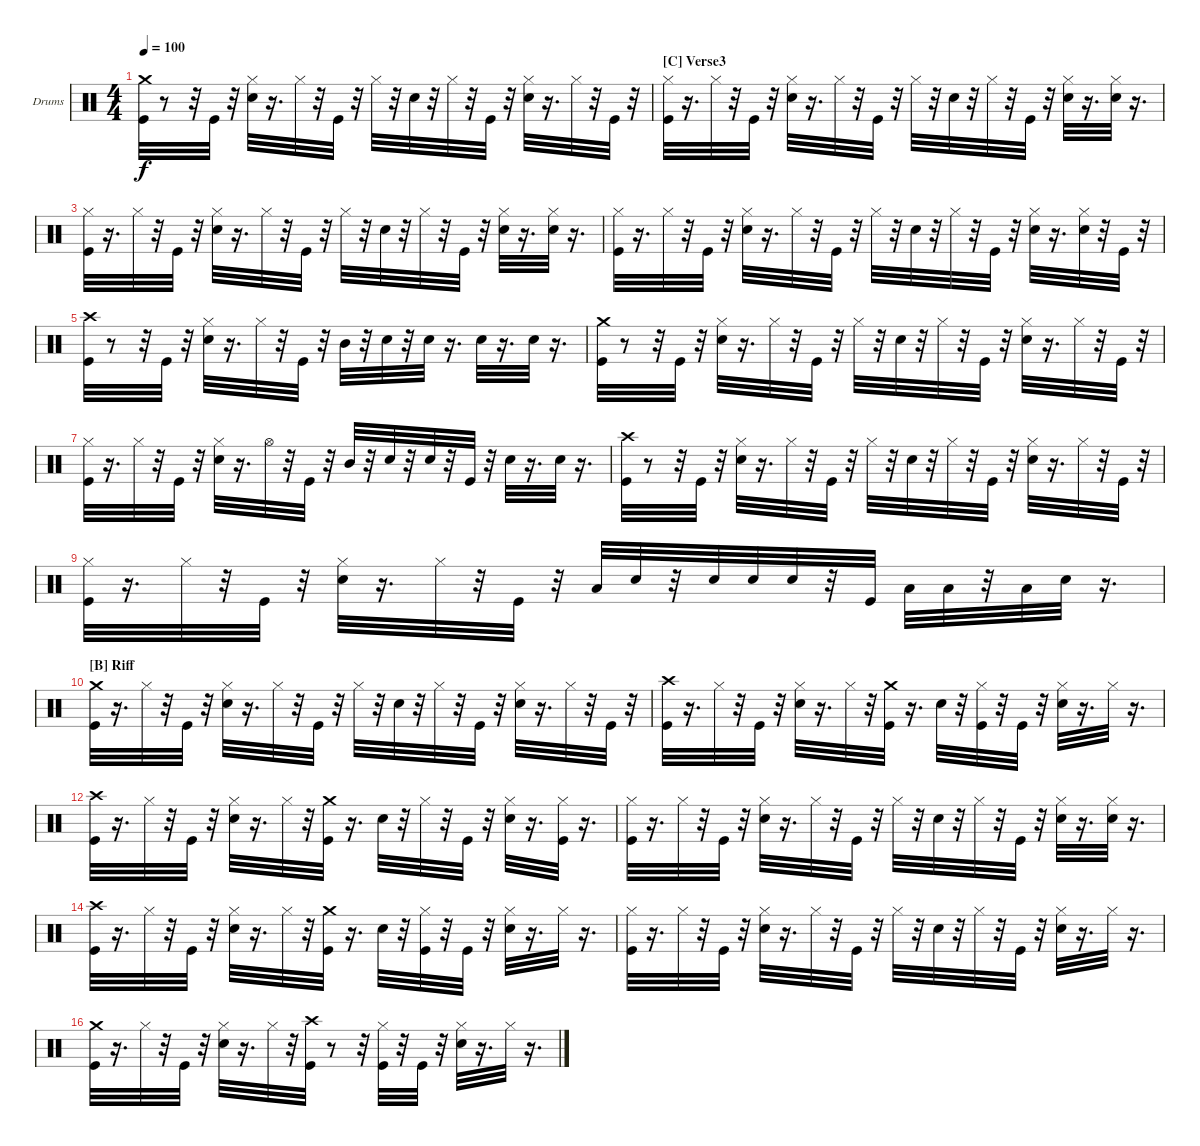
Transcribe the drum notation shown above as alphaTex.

\bracketExtendMode nobrackets
\firstSystemTrackNameOrientation horizontal
\otherSystemsTrackNameOrientation horizontal
\defaultBarNumberDisplay FirstOfSystem
\track ("Drumkit" "Drums") {instrument percussion}
\staff {score}
\articulation defaults
\ts (4 4)
\scale
0.197753
\tempo 100
\accidentals auto
\clef neutral
\ottava regular
\simile none
\ks c
("Crash medium (hit)" "Kick (hit)").32{dy f} r.8 r.32 "Kick (hit)".32 r.32 ("Hi-Hat (closed)" "Snare (hit) 2").32 r.16{d} "Hi-Hat (closed)".32 r.32 "Kick (hit)".32 r.32 "Hi-Hat (closed)".32 r.32 "Snare (hit) 2".32 r.32 "Hi-Hat (closed)".32 r.32 "Kick (hit)".32 r.32 ("Hi-Hat (closed)" "Snare (hit) 2").32 r.16{d} "Hi-Hat (closed)".32 r.32 "Kick (hit)".32 r.32 |
\section ("C" "Verse3")
("Hi-Hat (closed)" "Kick (hit)").32 r.16{d} "Hi-Hat (closed)".32 r.32 "Kick (hit)".32 r.32 ("Hi-Hat (closed)" "Snare (hit) 2").32 r.16{d} "Hi-Hat (closed)".32 r.32 "Kick (hit)".32 r.32 "Hi-Hat (closed)".32 r.32 "Snare (hit) 2".32 r.32 "Hi-Hat (closed)".32 r.32 "Kick (hit)".32 r.32 ("Hi-Hat (closed)" "Snare (hit) 2").32 r.16{d} ("Hi-Hat (closed)" "Snare (hit) 2").32 r.16{d} |
("Kick (hit)" "Hi-Hat (closed)").32 r.16{d} "Hi-Hat (closed)".32 r.32 "Kick (hit)".32 r.32 ("Snare (hit) 2" "Hi-Hat (closed)").32 r.16{d} "Hi-Hat (closed)".32 r.32 "Kick (hit)".32 r.32 "Hi-Hat (closed)".32 r.32 "Snare (hit) 2".32 r.32 "Hi-Hat (closed)".32 r.32 "Kick (hit)".32 r.32 ("Snare (hit) 2" "Hi-Hat (closed)").32 r.16{d} ("Snare (hit) 2" "Hi-Hat (closed)").32 r.16{d} |
\scale
0.397704 ("Kick (hit)" "Hi-Hat (closed)").32 r.16{d} "Hi-Hat (closed)".32 r.32 "Kick (hit)".32 r.32 ("Snare (hit) 2" "Hi-Hat (closed)").32 r.16{d} "Hi-Hat (closed)".32 r.32 "Kick (hit)".32 r.32 "Hi-Hat (closed)".32 r.32 "Snare (hit) 2".32 r.32 "Hi-Hat (closed)".32 r.32 "Kick (hit)".32 r.32 ("Snare (hit) 2" "Hi-Hat (closed)").32 r.16{d} ("Snare (hit) 2" "Hi-Hat (closed)").32 r.32 "Kick (hit)".32 r.32 |
\scale
0.602147 ("Kick (hit)" "Crash high (hit)").32 r.8 r.32 "Kick (hit)".32 r.32 ("Snare (hit) 2" "Hi-Hat (closed)").32 r.16{d} "Hi-Hat (closed)".32 r.32 "Kick (hit)".32 r.32 "Mid Tom (hit)".32 r.32 "Snare (hit) 2".32 r.32 "Snare (hit) 2".32 r.16{d} "Snare (hit) 2".32 r.16{d} "Snare (hit) 2".32 r.16{d} |
\scale
0.166178 ("Kick (hit)" "Crash medium (hit)").32 r.8 r.32 "Kick (hit)".32 r.32 ("Snare (hit) 2" "Hi-Hat (closed)").32 r.16{d} "Hi-Hat (closed)".32 r.32 "Kick (hit)".32 r.32 "Hi-Hat (closed)".32 r.32 "Snare (hit) 2".32 r.32 "Hi-Hat (closed)".32 r.32 "Kick (hit)".32 r.32 ("Snare (hit) 2" "Hi-Hat (closed)").32 r.16{d} "Hi-Hat (closed)".32 r.32 "Kick (hit)".32 r.32 |
\scale
0.221571 ("Kick (hit)" "Hi-Hat (closed)").32 r.16{d} "Hi-Hat (closed)".32 r.32 "Kick (hit)".32 r.32 ("Snare (hit) 2" "Hi-Hat (closed)").32 r.16{d} "Hi-Hat (open)".32 r.32 "Kick (hit)".32 r.32 "Mid Tom (hit)".32 r.32 "Snare (hit) 2".32 r.32 "Snare (hit) 2".32 r.32 "Kick (hit)".32 r.32 "Snare (hit) 2".32 r.16{d} "Snare (hit) 2".32 r.16{d} |
\scale
0.288042 ("Kick (hit)" "Crash high (hit)").32 r.8 r.32 "Kick (hit)".32 r.32 ("Hi-Hat (closed)" "Snare (hit) 2").32 r.16{d} "Hi-Hat (closed)".32 r.32 "Kick (hit)".32 r.32 "Hi-Hat (closed)".32 r.32 "Snare (hit) 2".32 r.32 "Hi-Hat (closed)".32 r.32 "Kick (hit)".32 r.32 ("Hi-Hat (closed)" "Snare (hit) 2").32 r.16{d} "Hi-Hat (closed)".32 r.32 "Kick (hit)".32 r.32 |
\scale
0.322084 ("Kick (hit)" "Hi-Hat (closed)").32 r.16{d} "Hi-Hat (closed)".32 r.32 "Kick (hit)".32 r.32 ("Snare (hit) 2" "Hi-Hat (closed)").32 r.16{d} "Hi-Hat (closed)".32 r.32 "Kick (hit)".32 r.32 "Low Tom (hit)".32 "Snare (hit) 2".32 r.32 "Snare (hit) 2".32 "Snare (hit) 2".32 "Snare (hit) 2".32 r.32 "Kick (hit)".32 "Low Tom (hit)".32 "Low Tom (hit)".32 r.32 "Low Tom (hit)".32 "Snare (hit) 2".32 r.16{d} |
\section ("B" "Riff")
("Kick (hit)" "Crash medium (hit)").32 r.16{d} "Hi-Hat (closed)".32 r.32 "Kick (hit)".32 r.32 ("Snare (hit) 2" "Hi-Hat (closed)").32 r.16{d} "Hi-Hat (closed)".32 r.32 "Kick (hit)".32 r.32 "Hi-Hat (closed)".32 r.32 "Snare (hit) 2".32 r.32 "Hi-Hat (closed)".32 r.32 "Kick (hit)".32 r.32 ("Snare (hit) 2" "Hi-Hat (closed)").32 r.16{d} "Hi-Hat (closed)".32 r.32 "Kick (hit)".32 r.32 |
("Crash high (hit)" "Kick (hit)").32 r.16{d} "Hi-Hat (closed)".32 r.32 "Kick (hit)".32 r.32 ("Hi-Hat (closed)" "Snare (hit) 2").32 r.16{d} "Hi-Hat (closed)".32 r.32 ("Crash medium (hit)" "Kick (hit)").32 r.16{d} "Snare (hit) 2".32 r.32 ("Hi-Hat (closed)" "Kick (hit)").32 r.32 "Kick (hit)".32 r.32 ("Hi-Hat (closed)" "Snare (hit) 2").32 r.16{d} "Hi-Hat (closed)".32 r.16{d} |
("Crash high (hit)" "Kick (hit)").32 r.16{d} "Hi-Hat (closed)".32 r.32 "Kick (hit)".32 r.32 ("Hi-Hat (closed)" "Snare (hit) 2").32 r.16{d} "Hi-Hat (closed)".32 r.32 ("Crash medium (hit)" "Kick (hit)").32 r.16{d} "Snare (hit) 2".32 r.32 "Hi-Hat (closed)".32 r.32 "Kick (hit)".32 r.32 ("Hi-Hat (closed)" "Snare (hit) 2").32 r.16{d} ("Kick (hit)" "Hi-Hat (closed)").32 r.16{d} |
\scale
0.50442 ("Hi-Hat (closed)" "Kick (hit)").32 r.16{d} "Hi-Hat (closed)".32 r.32 "Kick (hit)".32 r.32 ("Hi-Hat (closed)" "Snare (hit) 2").32 r.16{d} "Hi-Hat (closed)".32 r.32 "Kick (hit)".32 r.32 "Hi-Hat (closed)".32 r.32 "Snare (hit) 2".32 r.32 "Hi-Hat (closed)".32 r.32 "Kick (hit)".32 r.32 ("Hi-Hat (closed)" "Snare (hit) 2").32 r.16{d} ("Hi-Hat (closed)" "Snare (hit) 2").32 r.16{d} |
\scale
0.494779 ("Crash high (hit)" "Kick (hit)").32 r.16{d} "Hi-Hat (closed)".32 r.32 "Kick (hit)".32 r.32 ("Hi-Hat (closed)" "Snare (hit) 2").32 r.16{d} "Hi-Hat (closed)".32 r.32 ("Crash medium (hit)" "Kick (hit)").32 r.16{d} "Snare (hit) 2".32 r.32 ("Hi-Hat (closed)" "Kick (hit)").32 r.32 "Kick (hit)".32 r.32 ("Hi-Hat (closed)" "Snare (hit) 2").32 r.16{d} "Hi-Hat (closed)".32 r.16{d} |
("Hi-Hat (closed)" "Kick (hit)").32 r.16{d} "Hi-Hat (closed)".32 r.32 "Kick (hit)".32 r.32 ("Hi-Hat (closed)" "Snare (hit) 2").32 r.16{d} "Hi-Hat (closed)".32 r.32 "Kick (hit)".32 r.32 "Hi-Hat (closed)".32 r.32 "Snare (hit) 2".32 r.32 "Hi-Hat (closed)".32 r.32 "Kick (hit)".32 r.32 ("Hi-Hat (closed)" "Snare (hit) 2").32 r.16{d} "Hi-Hat (closed)".32 r.16{d} |
("Crash medium (hit)" "Kick (hit)").32 r.16{d} "Hi-Hat (closed)".32 r.32 "Kick (hit)".32 r.32 ("Hi-Hat (closed)" "Snare (hit) 2").32 r.16{d} "Hi-Hat (closed)".32 r.32 ("Crash high (hit)" "Kick (hit)").32 r.8 r.32 ("Kick (hit)" "Hi-Hat (closed)").32 r.32 "Kick (hit)".32 r.32 ("Hi-Hat (closed)" "Snare (hit) 2").32 r.16{d} "Hi-Hat (closed)".32 r.16{d}
